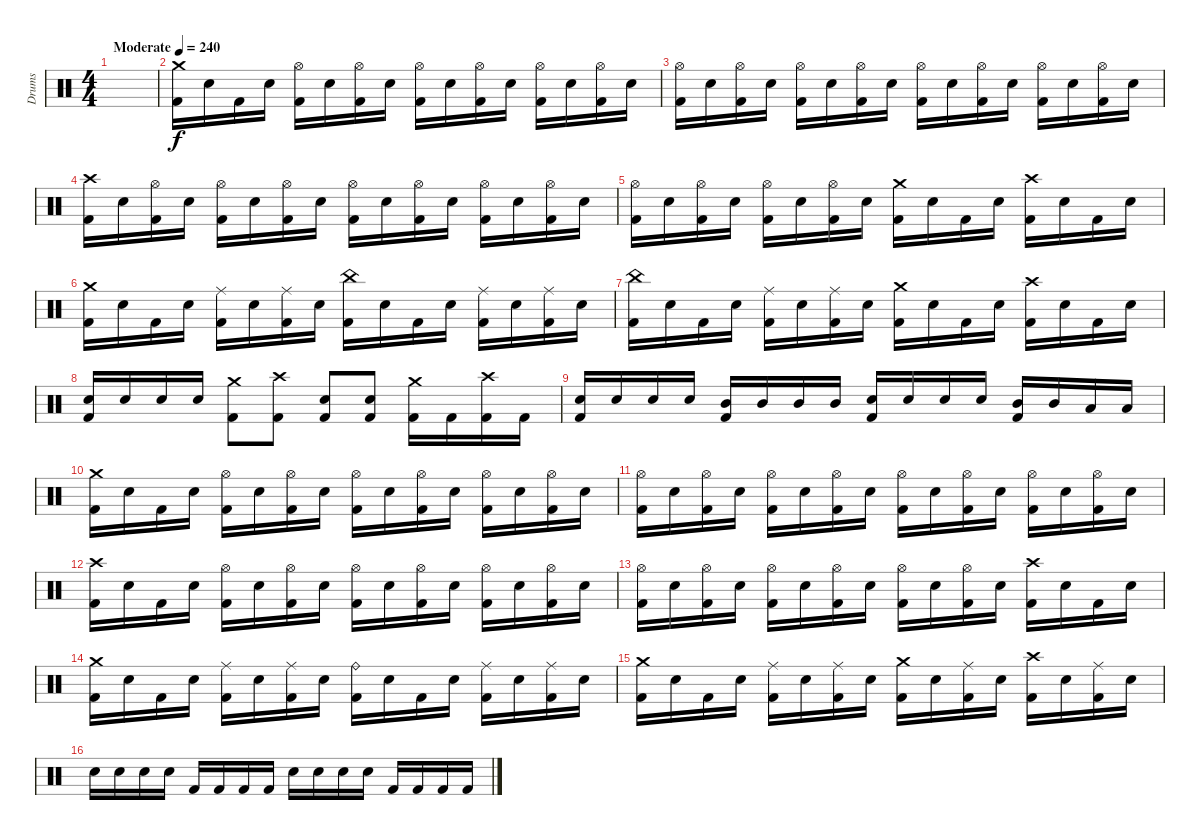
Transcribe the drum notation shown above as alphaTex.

\track ("Drums" "Drums") {instrument percussion}
\staff {score}
\articulation defaults
\ts (4 4)
\tempo (240 "Moderate")
\clef neutral
\ks c
|
("Crash medium (hit)" "Kick (hit) 2").16 "Electric Snare (hit)".16 "Kick (hit) 2".16 "Electric Snare (hit)".16 ("Hi-Hat (open)" "Kick (hit) 2").16 "Electric Snare (hit)".16 ("Hi-Hat (open)" "Kick (hit) 2").16 "Electric Snare (hit)".16 ("Hi-Hat (open)" "Kick (hit) 2").16 "Electric Snare (hit)".16 ("Hi-Hat (open)" "Kick (hit) 2").16 "Electric Snare (hit)".16 ("Hi-Hat (open)" "Kick (hit) 2").16 "Electric Snare (hit)".16 ("Hi-Hat (open)" "Kick (hit) 2").16 "Electric Snare (hit)".16 |
("Hi-Hat (open)" "Kick (hit) 2").16 "Electric Snare (hit)".16 ("Hi-Hat (open)" "Kick (hit) 2").16 "Electric Snare (hit)".16 ("Hi-Hat (open)" "Kick (hit) 2").16 "Electric Snare (hit)".16 ("Hi-Hat (open)" "Kick (hit) 2").16 "Electric Snare (hit)".16 ("Hi-Hat (open)" "Kick (hit) 2").16 "Electric Snare (hit)".16 ("Hi-Hat (open)" "Kick (hit) 2").16 "Electric Snare (hit)".16 ("Hi-Hat (open)" "Kick (hit) 2").16 "Electric Snare (hit)".16 ("Hi-Hat (open)" "Kick (hit) 2").16 "Electric Snare (hit)".16 |
("Crash high (hit)" "Kick (hit) 2").16 "Electric Snare (hit)".16 ("Hi-Hat (open)" "Kick (hit) 2").16 "Electric Snare (hit)".16 ("Hi-Hat (open)" "Kick (hit) 2").16 "Electric Snare (hit)".16 ("Hi-Hat (open)" "Kick (hit) 2").16 "Electric Snare (hit)".16 ("Hi-Hat (open)" "Kick (hit) 2").16 "Electric Snare (hit)".16 ("Hi-Hat (open)" "Kick (hit) 2").16 "Electric Snare (hit)".16 ("Hi-Hat (open)" "Kick (hit) 2").16 "Electric Snare (hit)".16 ("Hi-Hat (open)" "Kick (hit) 2").16 "Electric Snare (hit)".16 |
("Hi-Hat (open)" "Kick (hit) 2").16 "Electric Snare (hit)".16 ("Hi-Hat (open)" "Kick (hit) 2").16 "Electric Snare (hit)".16 ("Hi-Hat (open)" "Kick (hit) 2").16 "Electric Snare (hit)".16 ("Hi-Hat (open)" "Kick (hit) 2").16 "Electric Snare (hit)".16 ("Crash medium (hit)" "Kick (hit) 2").16 "Electric Snare (hit)".16 "Kick (hit) 2".16 "Electric Snare (hit)".16 ("Crash high (hit)" "Kick (hit) 2").16 "Electric Snare (hit)".16 "Kick (hit) 2".16 "Electric Snare (hit)".16 |
("Crash medium (hit)" "Kick (hit) 2").16 "Electric Snare (hit)".16 "Kick (hit) 2".16 "Electric Snare (hit)".16 ("Ride (middle)" "Kick (hit) 2").16 "Electric Snare (hit)".16 ("Ride (middle)" "Kick (hit) 2").16 "Electric Snare (hit)".16 ("China (hit)" "Kick (hit) 2").16 "Electric Snare (hit)".16 "Kick (hit) 2".16 "Electric Snare (hit)".16 ("Ride (middle)" "Kick (hit) 2").16 "Electric Snare (hit)".16 ("Ride (middle)" "Kick (hit) 2").16 "Electric Snare (hit)".16 |
("China (hit)" "Kick (hit) 2").16 "Electric Snare (hit)".16 "Kick (hit) 2".16 "Electric Snare (hit)".16 ("Ride (middle)" "Kick (hit) 2").16 "Electric Snare (hit)".16 ("Ride (middle)" "Kick (hit) 2").16 "Electric Snare (hit)".16 ("Crash medium (hit)" "Kick (hit) 2").16 "Electric Snare (hit)".16 "Kick (hit) 2".16 "Electric Snare (hit)".16 ("Crash high (hit)" "Kick (hit) 2").16 "Electric Snare (hit)".16 "Kick (hit) 2".16 "Electric Snare (hit)".16 |
("Electric Snare (hit)" "Kick (hit) 2").16 "Electric Snare (hit)".16 "Electric Snare (hit)".16 "Electric Snare (hit)".16 ("Crash medium (hit)" "Kick (hit) 2").8 ("Crash high (hit)" "Kick (hit) 2").8 ("Electric Snare (hit)" "Kick (hit) 2").8 ("Electric Snare (hit)" "Kick (hit) 2").8 ("Crash medium (hit)" "Kick (hit) 2").16 "Kick (hit) 2".16 ("Crash high (hit)" "Kick (hit) 2").16 "Kick (hit) 2".16 |
("Electric Snare (hit)" "Kick (hit) 2").16 "Electric Snare (hit)".16 "Electric Snare (hit)".16 "Electric Snare (hit)".16 ("Mid Tom (hit)" "Kick (hit) 2").16 "Mid Tom (hit)".16 "Mid Tom (hit)".16 "Mid Tom (hit)".16 ("Electric Snare (hit)" "Kick (hit) 2").16 "Electric Snare (hit)".16 "Electric Snare (hit)".16 "Electric Snare (hit)".16 ("Mid Tom (hit)" "Kick (hit) 2").16 "Mid Tom (hit)".16 "Low Tom (hit)".16 "Low Tom (hit)".16 |
("Crash medium (hit)" "Kick (hit) 2").16 "Electric Snare (hit)".16 "Kick (hit) 2".16 "Electric Snare (hit)".16 ("Hi-Hat (open)" "Kick (hit) 2").16 "Electric Snare (hit)".16 ("Hi-Hat (open)" "Kick (hit) 2").16 "Electric Snare (hit)".16 ("Hi-Hat (open)" "Kick (hit) 2").16 "Electric Snare (hit)".16 ("Hi-Hat (open)" "Kick (hit) 2").16 "Electric Snare (hit)".16 ("Hi-Hat (open)" "Kick (hit) 2").16 "Electric Snare (hit)".16 ("Hi-Hat (open)" "Kick (hit) 2").16 "Electric Snare (hit)".16 |
("Hi-Hat (open)" "Kick (hit) 2").16 "Electric Snare (hit)".16 ("Hi-Hat (open)" "Kick (hit) 2").16 "Electric Snare (hit)".16 ("Hi-Hat (open)" "Kick (hit) 2").16 "Electric Snare (hit)".16 ("Hi-Hat (open)" "Kick (hit) 2").16 "Electric Snare (hit)".16 ("Hi-Hat (open)" "Kick (hit) 2").16 "Electric Snare (hit)".16 ("Hi-Hat (open)" "Kick (hit) 2").16 "Electric Snare (hit)".16 ("Hi-Hat (open)" "Kick (hit) 2").16 "Electric Snare (hit)".16 ("Hi-Hat (open)" "Kick (hit) 2").16 "Electric Snare (hit)".16 |
("Crash high (hit)" "Kick (hit) 2").16 "Electric Snare (hit)".16 "Kick (hit) 2".16 "Electric Snare (hit)".16 ("Hi-Hat (open)" "Kick (hit) 2").16 "Electric Snare (hit)".16 ("Hi-Hat (open)" "Kick (hit) 2").16 "Electric Snare (hit)".16 ("Hi-Hat (open)" "Kick (hit) 2").16 "Electric Snare (hit)".16 ("Hi-Hat (open)" "Kick (hit) 2").16 "Electric Snare (hit)".16 ("Hi-Hat (open)" "Kick (hit) 2").16 "Electric Snare (hit)".16 ("Hi-Hat (open)" "Kick (hit) 2").16 "Electric Snare (hit)".16 |
("Hi-Hat (open)" "Kick (hit) 2").16 "Electric Snare (hit)".16 ("Hi-Hat (open)" "Kick (hit) 2").16 "Electric Snare (hit)".16 ("Hi-Hat (open)" "Kick (hit) 2").16 "Electric Snare (hit)".16 ("Hi-Hat (open)" "Kick (hit) 2").16 "Electric Snare (hit)".16 ("Hi-Hat (open)" "Kick (hit) 2").16 "Electric Snare (hit)".16 ("Hi-Hat (open)" "Kick (hit) 2").16 "Electric Snare (hit)".16 ("Crash high (hit)" "Kick (hit) 2").16 "Electric Snare (hit)".16 "Kick (hit) 2".16 "Electric Snare (hit)".16 |
("Crash medium (hit)" "Kick (hit) 2").16 "Electric Snare (hit)".16 "Kick (hit) 2".16 "Electric Snare (hit)".16 ("Ride (middle)" "Kick (hit) 2").16 "Electric Snare (hit)".16 ("Ride (middle)" "Kick (hit) 2").16 "Electric Snare (hit)".16 ("Ride (bell)" "Kick (hit) 2").16 "Electric Snare (hit)".16 "Kick (hit) 2".16 "Electric Snare (hit)".16 ("Ride (middle)" "Kick (hit) 2").16 "Electric Snare (hit)".16 ("Ride (middle)" "Kick (hit) 2").16 "Electric Snare (hit)".16 |
("Crash medium (hit)" "Kick (hit) 2").16 "Electric Snare (hit)".16 "Kick (hit) 2".16 "Electric Snare (hit)".16 ("Ride (middle)" "Kick (hit) 2").16 "Electric Snare (hit)".16 ("Ride (middle)" "Kick (hit) 2").16 "Electric Snare (hit)".16 ("Crash medium (hit)" "Kick (hit) 2").16 "Electric Snare (hit)".16 ("Ride (middle)" "Kick (hit) 2").16 "Electric Snare (hit)".16 ("Crash high (hit)" "Kick (hit) 2").16 "Electric Snare (hit)".16 ("Ride (middle)" "Kick (hit) 2").16 "Electric Snare (hit)".16 |
"Electric Snare (hit)".16 "Electric Snare (hit)".16 "Electric Snare (hit)".16 "Electric Snare (hit)".16 "Kick (hit) 2".16 "Kick (hit) 2".16 "Kick (hit) 2".16 "Kick (hit) 2".16 "Electric Snare (hit)".16 "Electric Snare (hit)".16 "Electric Snare (hit)".16 "Electric Snare (hit)".16 "Kick (hit) 2".16 "Kick (hit) 2".16 "Kick (hit) 2".16 "Kick (hit) 2".16
